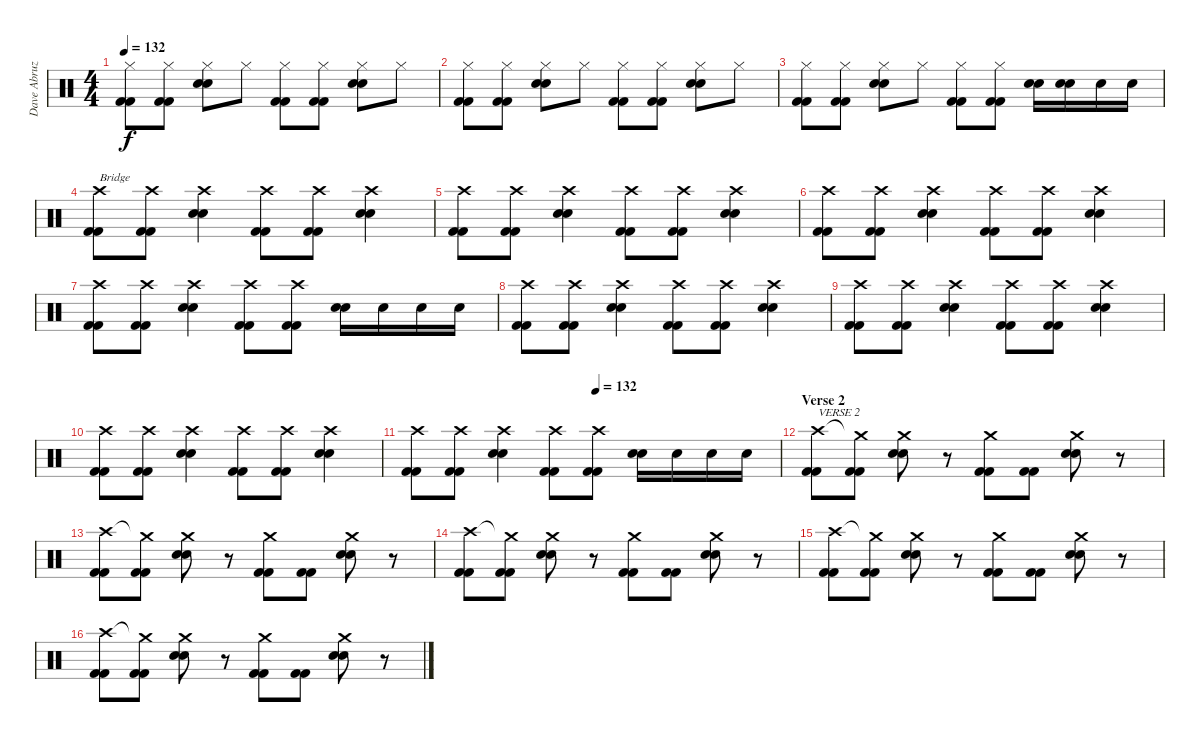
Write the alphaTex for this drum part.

\track ("Dave Abruzzesse" "Dave Abruz") {instrument percussion}
\staff {score}
\articulation defaults
\ts (4 4)
\tempo 132
\clef neutral
\ks c
("Hi-Hat (closed)" "Kick (hit) 2" "Kick (hit) 2").8{dy f} ("Hi-Hat (closed)" "Kick (hit) 2" "Kick (hit) 2").8 ("Hi-Hat (closed)" "Snare (hit) 2" "Snare (hit) 2").8 "Hi-Hat (closed)".8 ("Hi-Hat (closed)" "Kick (hit) 2" "Kick (hit) 2").8 ("Hi-Hat (closed)" "Kick (hit) 2" "Kick (hit) 2").8 ("Hi-Hat (closed)" "Snare (hit) 2" "Snare (hit) 2").8 "Hi-Hat (closed)".8 |
("Hi-Hat (closed)" "Kick (hit) 2" "Kick (hit) 2").8 ("Hi-Hat (closed)" "Kick (hit) 2" "Kick (hit) 2").8 ("Hi-Hat (closed)" "Snare (hit) 2" "Snare (hit) 2").8 "Hi-Hat (closed)".8 ("Hi-Hat (closed)" "Kick (hit) 2" "Kick (hit) 2").8 ("Hi-Hat (closed)" "Kick (hit) 2" "Kick (hit) 2").8 ("Hi-Hat (closed)" "Snare (hit) 2" "Snare (hit) 2").8 "Hi-Hat (closed)".8 |
("Hi-Hat (closed)" "Kick (hit) 2" "Kick (hit) 2").8 ("Hi-Hat (closed)" "Kick (hit) 2" "Kick (hit) 2").8 ("Hi-Hat (closed)" "Snare (hit) 2" "Snare (hit) 2").8 "Hi-Hat (closed)".8 ("Hi-Hat (closed)" "Kick (hit) 2" "Kick (hit) 2").8 ("Hi-Hat (closed)" "Kick (hit) 2" "Kick (hit) 2").8 ("Snare (hit) 2" "Snare (hit) 2").16 ("Snare (hit) 2" "Snare (hit) 2").16 "Snare (hit) 2".16 "Snare (hit) 2".16 |
("Crash high (hit)" "Kick (hit) 2" "Kick (hit) 2").8{txt "Bridge"} ("Crash high (hit)" "Kick (hit) 2" "Kick (hit) 2").8 ("Crash high (hit)" "Snare (hit) 2" "Snare (hit) 2").4 ("Crash high (hit)" "Kick (hit) 2" "Kick (hit) 2").8 ("Crash high (hit)" "Kick (hit) 2" "Kick (hit) 2").8 ("Crash high (hit)" "Snare (hit) 2" "Snare (hit) 2").4 |
("Crash high (hit)" "Kick (hit) 2" "Kick (hit) 2").8 ("Crash high (hit)" "Kick (hit) 2" "Kick (hit) 2").8 ("Crash high (hit)" "Snare (hit) 2" "Snare (hit) 2").4 ("Crash high (hit)" "Kick (hit) 2" "Kick (hit) 2").8 ("Crash high (hit)" "Kick (hit) 2" "Kick (hit) 2").8 ("Crash high (hit)" "Snare (hit) 2" "Snare (hit) 2").4 |
("Crash high (hit)" "Kick (hit) 2" "Kick (hit) 2").8 ("Crash high (hit)" "Kick (hit) 2" "Kick (hit) 2").8 ("Crash high (hit)" "Snare (hit) 2" "Snare (hit) 2").4 ("Crash high (hit)" "Kick (hit) 2" "Kick (hit) 2").8 ("Crash high (hit)" "Kick (hit) 2" "Kick (hit) 2").8 ("Crash high (hit)" "Snare (hit) 2" "Snare (hit) 2").4 |
("Crash high (hit)" "Kick (hit) 2" "Kick (hit) 2").8 ("Crash high (hit)" "Kick (hit) 2" "Kick (hit) 2").8 ("Crash high (hit)" "Snare (hit) 2" "Snare (hit) 2").4 ("Crash high (hit)" "Kick (hit) 2" "Kick (hit) 2").8 ("Crash high (hit)" "Kick (hit) 2" "Kick (hit) 2").8 ("Snare (hit) 2" "Snare (hit) 2").16 "Snare (hit) 2".16 "Snare (hit) 2".16 "Snare (hit) 2".16 |
("Crash high (hit)" "Kick (hit) 2" "Kick (hit) 2").8 ("Crash high (hit)" "Kick (hit) 2" "Kick (hit) 2").8 ("Crash high (hit)" "Snare (hit) 2" "Snare (hit) 2").4 ("Crash high (hit)" "Kick (hit) 2" "Kick (hit) 2").8 ("Crash high (hit)" "Kick (hit) 2" "Kick (hit) 2").8 ("Crash high (hit)" "Snare (hit) 2" "Snare (hit) 2").4 |
("Crash high (hit)" "Kick (hit) 2" "Kick (hit) 2").8 ("Crash high (hit)" "Kick (hit) 2" "Kick (hit) 2").8 ("Crash high (hit)" "Snare (hit) 2" "Snare (hit) 2").4 ("Crash high (hit)" "Kick (hit) 2" "Kick (hit) 2").8 ("Crash high (hit)" "Kick (hit) 2" "Kick (hit) 2").8 ("Crash high (hit)" "Snare (hit) 2" "Snare (hit) 2").4 |
("Crash high (hit)" "Kick (hit) 2" "Kick (hit) 2").8 ("Crash high (hit)" "Kick (hit) 2" "Kick (hit) 2").8 ("Crash high (hit)" "Snare (hit) 2" "Snare (hit) 2").4 ("Crash high (hit)" "Kick (hit) 2" "Kick (hit) 2").8 ("Crash high (hit)" "Kick (hit) 2" "Kick (hit) 2").8 ("Crash high (hit)" "Snare (hit) 2" "Snare (hit) 2").4 |
\tempo (132 0.5)
("Crash high (hit)" "Kick (hit) 2" "Kick (hit) 2").8 ("Crash high (hit)" "Kick (hit) 2" "Kick (hit) 2").8 ("Crash high (hit)" "Snare (hit) 2" "Snare (hit) 2").4 ("Crash high (hit)" "Kick (hit) 2" "Kick (hit) 2").8 ("Crash high (hit)" "Kick (hit) 2" "Kick (hit) 2").8 ("Snare (hit) 2" "Snare (hit) 2").16 "Snare (hit) 2".16 "Snare (hit) 2".16 "Snare (hit) 2".16 |
\section ("" "Verse 2")
("Crash high (hit)" "Kick (hit) 2" "Kick (hit) 2").8{txt "VERSE 2"} ("Crash medium (hit)"{t} "Kick (hit) 2" "Kick (hit) 2").8 ("Crash medium (hit)" "Snare (hit) 2" "Snare (hit) 2").8 r.8 ("Crash medium (hit)" "Kick (hit) 2" "Kick (hit) 2").8 ("Kick (hit) 2" "Kick (hit) 2").8 ("Crash medium (hit)" "Snare (hit) 2" "Snare (hit) 2").8 r.8 |
("Crash high (hit)" "Kick (hit) 2" "Kick (hit) 2").8 ("Crash medium (hit)"{t} "Kick (hit) 2" "Kick (hit) 2").8 ("Crash medium (hit)" "Snare (hit) 2" "Snare (hit) 2").8 r.8 ("Crash medium (hit)" "Kick (hit) 2" "Kick (hit) 2").8 ("Kick (hit) 2" "Kick (hit) 2").8 ("Crash medium (hit)" "Snare (hit) 2" "Snare (hit) 2").8 r.8 |
("Crash high (hit)" "Kick (hit) 2" "Kick (hit) 2").8 ("Crash medium (hit)"{t} "Kick (hit) 2" "Kick (hit) 2").8 ("Crash medium (hit)" "Snare (hit) 2" "Snare (hit) 2").8 r.8 ("Crash medium (hit)" "Kick (hit) 2" "Kick (hit) 2").8 ("Kick (hit) 2" "Kick (hit) 2").8 ("Crash medium (hit)" "Snare (hit) 2" "Snare (hit) 2").8 r.8 |
("Crash high (hit)" "Kick (hit) 2" "Kick (hit) 2").8 ("Crash medium (hit)"{t} "Kick (hit) 2" "Kick (hit) 2").8 ("Crash medium (hit)" "Snare (hit) 2" "Snare (hit) 2").8 r.8 ("Crash medium (hit)" "Kick (hit) 2" "Kick (hit) 2").8 ("Kick (hit) 2" "Kick (hit) 2").8 ("Crash medium (hit)" "Snare (hit) 2" "Snare (hit) 2").8 r.8 |
("Crash high (hit)" "Kick (hit) 2" "Kick (hit) 2").8 ("Crash medium (hit)"{t} "Kick (hit) 2" "Kick (hit) 2").8 ("Crash medium (hit)" "Snare (hit) 2" "Snare (hit) 2").8 r.8 ("Crash medium (hit)" "Kick (hit) 2" "Kick (hit) 2").8 ("Kick (hit) 2" "Kick (hit) 2").8 ("Crash medium (hit)" "Snare (hit) 2" "Snare (hit) 2").8 r.8
